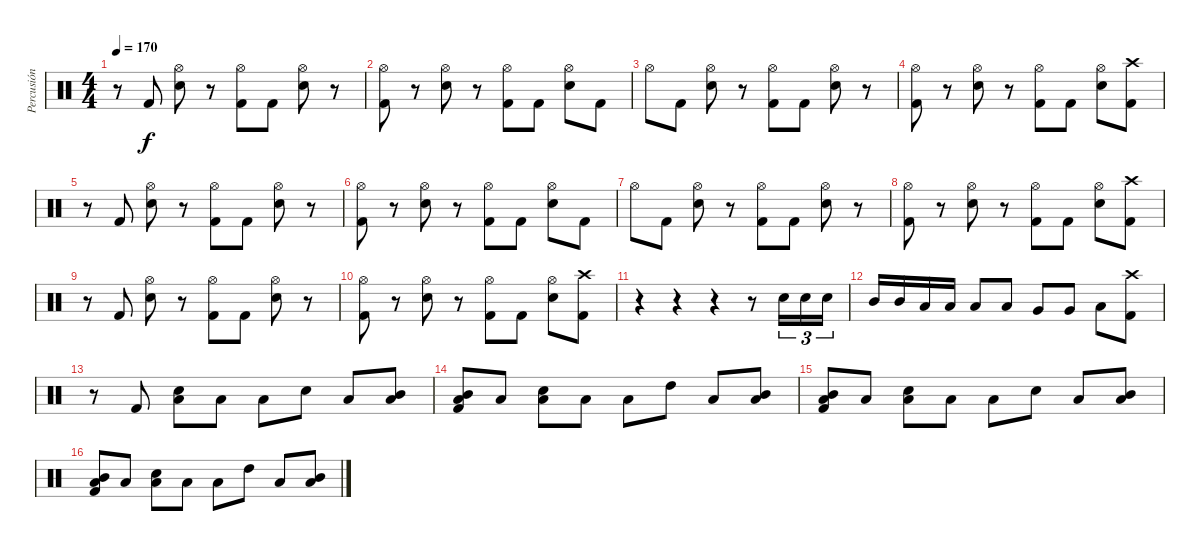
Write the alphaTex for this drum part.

\track ("Percusión" "Percusión") {instrument percussion}
\staff {score}
\articulation defaults
\ts (4 4)
\tempo 170
\clef neutral
\ks c
r.8{dy f} "Kick (hit) 2".8 ("Snare (hit) 2" "Hi-Hat (open)").8 r.8 ("Kick (hit) 2" "Hi-Hat (open)").8 "Kick (hit) 2".8 ("Snare (hit) 2" "Hi-Hat (open)").8 r.8 |
("Kick (hit) 2" "Hi-Hat (open)").8 r.8 ("Snare (hit) 2" "Hi-Hat (open)").8 r.8 ("Kick (hit) 2" "Hi-Hat (open)").8 "Kick (hit) 2".8 ("Snare (hit) 2" "Hi-Hat (open)").8 "Kick (hit) 2".8 |
"Hi-Hat (open)".8 "Kick (hit) 2".8 ("Snare (hit) 2" "Hi-Hat (open)").8 r.8 ("Kick (hit) 2" "Hi-Hat (open)").8 "Kick (hit) 2".8 ("Snare (hit) 2" "Hi-Hat (open)").8 r.8 |
("Kick (hit) 2" "Hi-Hat (open)").8 r.8 ("Snare (hit) 2" "Hi-Hat (open)").8 r.8 ("Kick (hit) 2" "Hi-Hat (open)").8 "Kick (hit) 2".8 ("Snare (hit) 2" "Hi-Hat (open)").8 ("Kick (hit) 2" "Crash high (hit)").8 |
r.8 "Kick (hit) 2".8 ("Snare (hit) 2" "Hi-Hat (open)").8 r.8 ("Kick (hit) 2" "Hi-Hat (open)").8 "Kick (hit) 2".8 ("Snare (hit) 2" "Hi-Hat (open)").8 r.8 |
("Kick (hit) 2" "Hi-Hat (open)").8 r.8 ("Snare (hit) 2" "Hi-Hat (open)").8 r.8 ("Kick (hit) 2" "Hi-Hat (open)").8 "Kick (hit) 2".8 ("Snare (hit) 2" "Hi-Hat (open)").8 "Kick (hit) 2".8 |
"Hi-Hat (open)".8 "Kick (hit) 2".8 ("Snare (hit) 2" "Hi-Hat (open)").8 r.8 ("Kick (hit) 2" "Hi-Hat (open)").8 "Kick (hit) 2".8 ("Snare (hit) 2" "Hi-Hat (open)").8 r.8 |
("Kick (hit) 2" "Hi-Hat (open)").8 r.8 ("Snare (hit) 2" "Hi-Hat (open)").8 r.8 ("Kick (hit) 2" "Hi-Hat (open)").8 "Kick (hit) 2".8 ("Snare (hit) 2" "Hi-Hat (open)").8 ("Kick (hit) 2" "Crash high (hit)").8 |
r.8 "Kick (hit) 2".8 ("Snare (hit) 2" "Hi-Hat (open)").8 r.8 ("Kick (hit) 2" "Hi-Hat (open)").8 "Kick (hit) 2".8 ("Snare (hit) 2" "Hi-Hat (open)").8 r.8 |
("Kick (hit) 2" "Hi-Hat (open)").8 r.8 ("Snare (hit) 2" "Hi-Hat (open)").8 r.8 ("Kick (hit) 2" "Hi-Hat (open)").8 "Kick (hit) 2".8 ("Snare (hit) 2" "Hi-Hat (open)").8 ("Kick (hit) 2" "Crash high (hit)").8 |
r.4 r.4 r.4 r.8 "Snare (hit) 2".16{tu (3 2)} "Snare (hit) 2".16{tu (3 2)} "Snare (hit) 2".16{tu (3 2)} |
"Mid Tom (hit)".16 "Mid Tom (hit)".16 "Low Tom (hit)".16 "Low Tom (hit)".16 "Low Tom (hit)".8 "Low Tom (hit)".8 "Very Low Tom (hit)".8 "Very Low Tom (hit)".8 "Low Floor Tom (hit)".8 ("Kick (hit) 2" "Crash high (hit)").8 |
r.8 "Kick (hit) 2".8 ("Snare (hit) 2" "Low Floor Tom (hit)").8 "Low Floor Tom (hit)".8 "Low Floor Tom (hit)".8 "Snare (hit) 2".8 "Low Floor Tom (hit)".8 ("Mid Tom (hit)" "Low Floor Tom (hit)").8 |
("Kick (hit) 2" "Mid Tom (hit)" "Low Floor Tom (hit)").8 "Low Tom (hit)".8 ("Snare (hit) 2" "Low Floor Tom (hit)").8 "Low Floor Tom (hit)".8 "Low Floor Tom (hit)".8 "High Tom (hit)".8 "Low Floor Tom (hit)".8 ("Mid Tom (hit)" "Low Floor Tom (hit)").8 |
("Kick (hit) 2" "Mid Tom (hit)" "Low Floor Tom (hit)").8 "Low Tom (hit)".8 ("Snare (hit) 2" "Low Floor Tom (hit)").8 "Low Floor Tom (hit)".8 "Low Floor Tom (hit)".8 "Snare (hit) 2".8 "Low Floor Tom (hit)".8 ("Mid Tom (hit)" "Low Floor Tom (hit)").8 |
("Kick (hit) 2" "Mid Tom (hit)" "Low Floor Tom (hit)").8 "Low Tom (hit)".8 ("Snare (hit) 2" "Low Floor Tom (hit)").8 "Low Floor Tom (hit)".8 "Low Floor Tom (hit)".8 "High Tom (hit)".8 "Low Floor Tom (hit)".8 ("Mid Tom (hit)" "Low Floor Tom (hit)").8
